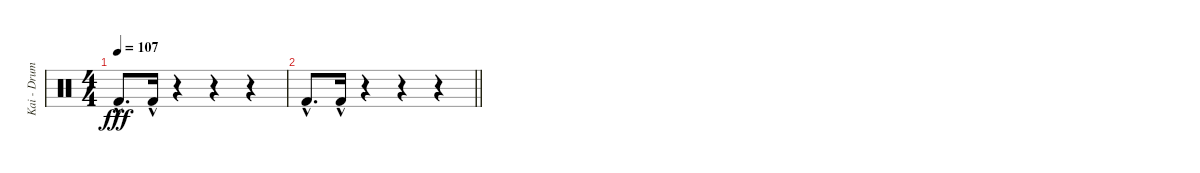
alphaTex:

\track ("Kai - Drums" "Kai - Drum") {instrument percussion}
\staff {score}
\articulation defaults
\ts (4 4)
\tempo 107
\clef neutral
\ks c "Kick (hit) 2"{hac}.8{d dy fff} "Kick (hit) 2"{hac}.16
r.4 r.4 r.4 |
\barLineRight lightlight "Kick (hit) 2"{hac}.8{d} "Kick (hit) 2"{hac}.16
r.4 r.4 r.4
